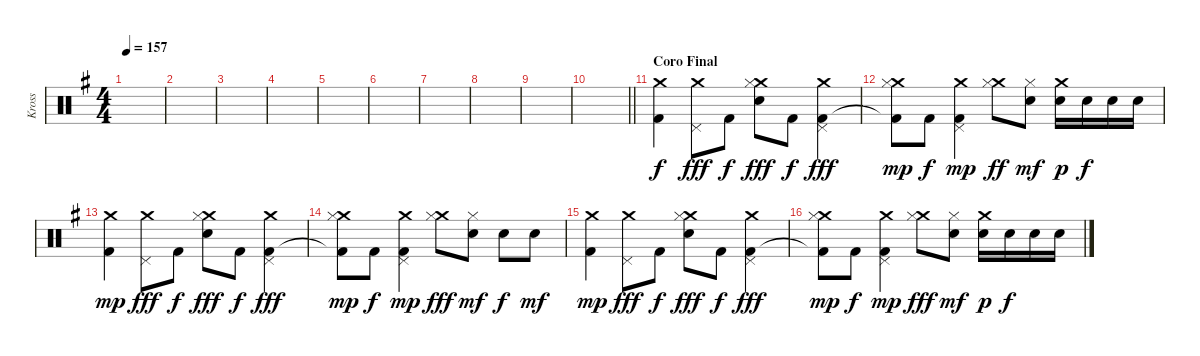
\track ("Kross" "Kross") {instrument percussion}
\staff {score}
\articulation defaults
\ts (4 4)
\tempo 157
\clef neutral
\ks g
|
|
|
|
|
|
|
|
|
\barLineRight lightlight
|
\section ("" "Coro Final")
("Crash medium (hit)" "Kick (hit) 2").4{dy f volume 16} ("Crash medium (hit)" "Pedal Hi-Hat (hit)").8{dy fff} "Kick (hit) 2".8{dy f} ("Crash medium (hit)" "Hi-Hat (closed)" "Electric Snare (hit)").8{dy fff} "Kick (hit) 2".8{dy f} ("Crash medium (hit)" "Pedal Hi-Hat (hit)" "Kick (hit) 2").4{dy fff} |
("Crash medium (hit)" "Hi-Hat (closed)" "Kick (hit) 2"{t}).8{dy mp} "Kick (hit) 2".8{dy f} ("Crash medium (hit)" "Pedal Hi-Hat (hit)" "Kick (hit) 2").4{dy mp} ("Crash medium (hit)" "Hi-Hat (closed)").8{dy ff} ("Hi-Hat (closed)" "Snare (hit) 2").8{dy mf} ("Crash medium (hit)" "Electric Snare (hit)").16{dy p} "Electric Snare (hit)".16{dy f} "Electric Snare (hit)".16 "Electric Snare (hit)".16 |
("Crash medium (hit)" "Kick (hit) 2").4{dy mp} ("Crash medium (hit)" "Pedal Hi-Hat (hit)").8{dy fff} "Kick (hit) 2".8{dy f} ("Crash medium (hit)" "Hi-Hat (closed)" "Electric Snare (hit)").8{dy fff} "Kick (hit) 2".8{dy f} ("Crash medium (hit)" "Pedal Hi-Hat (hit)" "Kick (hit) 2").4{dy fff} |
("Crash medium (hit)" "Hi-Hat (closed)" "Kick (hit) 2"{t}).8{dy mp} "Kick (hit) 2".8{dy f} ("Crash medium (hit)" "Pedal Hi-Hat (hit)" "Kick (hit) 2").4{dy mp} ("Crash medium (hit)" "Hi-Hat (closed)").8{dy fff} ("Hi-Hat (closed)" "Snare (hit) 2").8{dy mf} "Electric Snare (hit)".8{dy f} "Snare (hit) 2".8{dy mf} |
("Crash medium (hit)" "Kick (hit) 2").4{dy mp} ("Crash medium (hit)" "Pedal Hi-Hat (hit)").8{dy fff} "Kick (hit) 2".8{dy f} ("Crash medium (hit)" "Hi-Hat (closed)" "Electric Snare (hit)").8{dy fff} "Kick (hit) 2".8{dy f} ("Crash medium (hit)" "Pedal Hi-Hat (hit)" "Kick (hit) 2").4{dy fff} |
("Crash medium (hit)" "Hi-Hat (closed)" "Kick (hit) 2"{t}).8{dy mp} "Kick (hit) 2".8{dy f} ("Crash medium (hit)" "Pedal Hi-Hat (hit)" "Kick (hit) 2").4{dy mp} ("Crash medium (hit)" "Hi-Hat (closed)").8{dy fff} ("Hi-Hat (closed)" "Snare (hit) 2").8{dy mf} ("Crash medium (hit)" "Electric Snare (hit)").16{dy p} "Electric Snare (hit)".16{dy f} "Electric Snare (hit)".16 "Electric Snare (hit)".16
